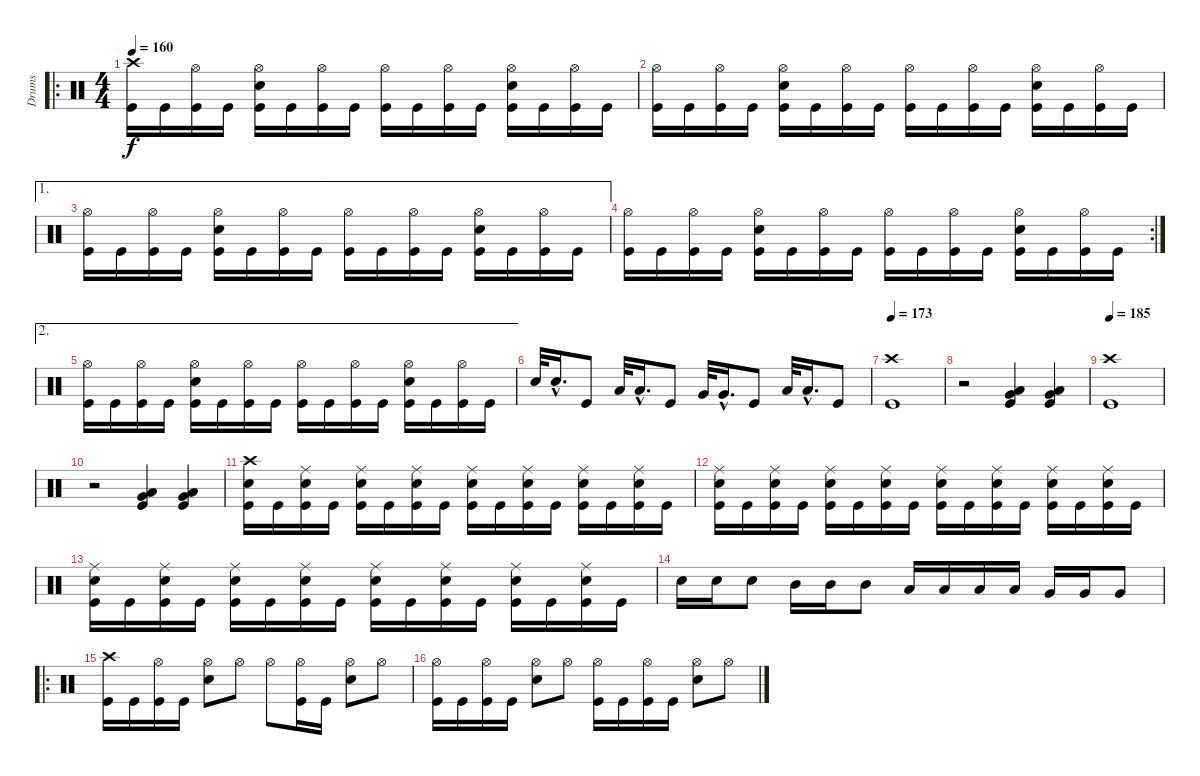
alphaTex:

\track ("Drums" "Drums") {instrument percussion}
\staff {score}
\articulation defaults
\ro
\ts (4 4)
\tempo 160
\clef neutral
\ks c
("Crash high (hit)" "Kick (hit)").16{dy f} "Kick (hit)".16 ("Hi-Hat (open)" "Kick (hit)").16 "Kick (hit)".16 ("Hi-Hat (open)" "Electric Snare (hit)" "Kick (hit)").16 "Kick (hit)".16 ("Hi-Hat (open)" "Kick (hit)").16 "Kick (hit)".16 ("Hi-Hat (open)" "Kick (hit)").16 "Kick (hit)".16 ("Hi-Hat (open)" "Kick (hit)").16 "Kick (hit)".16 ("Hi-Hat (open)" "Electric Snare (hit)" "Kick (hit)").16 "Kick (hit)".16 ("Hi-Hat (open)" "Kick (hit)").16 "Kick (hit)".16 |
("Hi-Hat (open)" "Kick (hit)").16 "Kick (hit)".16 ("Hi-Hat (open)" "Kick (hit)").16 "Kick (hit)".16 ("Hi-Hat (open)" "Electric Snare (hit)" "Kick (hit)").16 "Kick (hit)".16 ("Hi-Hat (open)" "Kick (hit)").16 "Kick (hit)".16 ("Hi-Hat (open)" "Kick (hit)").16 "Kick (hit)".16 ("Hi-Hat (open)" "Kick (hit)").16 "Kick (hit)".16 ("Hi-Hat (open)" "Electric Snare (hit)" "Kick (hit)").16 "Kick (hit)".16 ("Hi-Hat (open)" "Kick (hit)").16 "Kick (hit)".16 |
\ae 1
("Hi-Hat (open)" "Kick (hit)").16 "Kick (hit)".16 ("Hi-Hat (open)" "Kick (hit)").16 "Kick (hit)".16 ("Hi-Hat (open)" "Electric Snare (hit)" "Kick (hit)").16 "Kick (hit)".16 ("Hi-Hat (open)" "Kick (hit)").16 "Kick (hit)".16 ("Hi-Hat (open)" "Kick (hit)").16 "Kick (hit)".16 ("Hi-Hat (open)" "Kick (hit)").16 "Kick (hit)".16 ("Hi-Hat (open)" "Electric Snare (hit)" "Kick (hit)").16 "Kick (hit)".16 ("Hi-Hat (open)" "Kick (hit)").16 "Kick (hit)".16 |
\rc 2
("Hi-Hat (open)" "Kick (hit)").16 "Kick (hit)".16 ("Hi-Hat (open)" "Kick (hit)").16 "Kick (hit)".16 ("Hi-Hat (open)" "Electric Snare (hit)" "Kick (hit)").16 "Kick (hit)".16 ("Hi-Hat (open)" "Kick (hit)").16 "Kick (hit)".16 ("Hi-Hat (open)" "Kick (hit)").16 "Kick (hit)".16 ("Hi-Hat (open)" "Kick (hit)").16 "Kick (hit)".16 ("Hi-Hat (open)" "Electric Snare (hit)" "Kick (hit)").16 "Kick (hit)".16 ("Hi-Hat (open)" "Kick (hit)").16 "Kick (hit)".16 |
\ae 2
("Hi-Hat (open)" "Kick (hit)").16 "Kick (hit)".16 ("Hi-Hat (open)" "Kick (hit)").16 "Kick (hit)".16 ("Hi-Hat (open)" "Electric Snare (hit)" "Kick (hit)").16 "Kick (hit)".16 ("Hi-Hat (open)" "Kick (hit)").16 "Kick (hit)".16 ("Hi-Hat (open)" "Kick (hit)").16 "Kick (hit)".16 ("Hi-Hat (open)" "Kick (hit)").16 "Kick (hit)".16 ("Hi-Hat (open)" "Electric Snare (hit)" "Kick (hit)").16 "Kick (hit)".16 ("Hi-Hat (open)" "Kick (hit)").16 "Kick (hit)".16 |
"Electric Snare (hit)".32 "Electric Snare (hit)"{hac}.16{d} "Kick (hit)".8 "Low Tom (hit)".32 "Low Tom (hit)"{hac}.16{d} "Kick (hit)".8 "Very Low Tom (hit)".32 "Very Low Tom (hit)"{hac}.16{d} "Kick (hit)".8 "Low Floor Tom (hit)".32 "Low Floor Tom (hit)"{hac}.16{d} "Kick (hit)".8 |
\tempo 173
("Crash high (hit)" "Kick (hit)").1 |
r.2 ("Low Tom (hit)" "Very Low Tom (hit)" "Kick (hit)").4 ("Low Tom (hit)" "Very Low Tom (hit)" "Kick (hit)").4 |
\tempo 185
("Crash high (hit)" "Kick (hit)").1 |
r.2 ("Low Tom (hit)" "Very Low Tom (hit)" "Kick (hit)").4 ("Low Tom (hit)" "Very Low Tom (hit)" "Kick (hit)").4 |
("Crash high (hit)" "Electric Snare (hit)" "Kick (hit)").16 "Kick (hit)".16 ("Ride (middle)" "Electric Snare (hit)" "Kick (hit)").16 "Kick (hit)".16 ("Ride (middle)" "Electric Snare (hit)" "Kick (hit)").16 "Kick (hit)".16 ("Ride (middle)" "Electric Snare (hit)" "Kick (hit)").16 "Kick (hit)".16 ("Ride (middle)" "Electric Snare (hit)" "Kick (hit)").16 "Kick (hit)".16 ("Ride (middle)" "Electric Snare (hit)" "Kick (hit)").16 "Kick (hit)".16 ("Ride (middle)" "Electric Snare (hit)" "Kick (hit)").16 "Kick (hit)".16 ("Ride (middle)" "Electric Snare (hit)" "Kick (hit)").16 "Kick (hit)".16 |
("Ride (middle)" "Electric Snare (hit)" "Kick (hit)").16 "Kick (hit)".16 ("Ride (middle)" "Electric Snare (hit)" "Kick (hit)").16 "Kick (hit)".16 ("Ride (middle)" "Electric Snare (hit)" "Kick (hit)").16 "Kick (hit)".16 ("Ride (middle)" "Electric Snare (hit)" "Kick (hit)").16 "Kick (hit)".16 ("Ride (middle)" "Electric Snare (hit)" "Kick (hit)").16 "Kick (hit)".16 ("Ride (middle)" "Electric Snare (hit)" "Kick (hit)").16 "Kick (hit)".16 ("Ride (middle)" "Electric Snare (hit)" "Kick (hit)").16 "Kick (hit)".16 ("Ride (middle)" "Electric Snare (hit)" "Kick (hit)").16 "Kick (hit)".16 |
("Ride (middle)" "Electric Snare (hit)" "Kick (hit)").16 "Kick (hit)".16 ("Ride (middle)" "Electric Snare (hit)" "Kick (hit)").16 "Kick (hit)".16 ("Ride (middle)" "Electric Snare (hit)" "Kick (hit)").16 "Kick (hit)".16 ("Ride (middle)" "Electric Snare (hit)" "Kick (hit)").16 "Kick (hit)".16 ("Ride (middle)" "Electric Snare (hit)" "Kick (hit)").16 "Kick (hit)".16 ("Ride (middle)" "Electric Snare (hit)" "Kick (hit)").16 "Kick (hit)".16 ("Ride (middle)" "Electric Snare (hit)" "Kick (hit)").16 "Kick (hit)".16 ("Ride (middle)" "Electric Snare (hit)" "Kick (hit)").16 "Kick (hit)".16 |
"Electric Snare (hit)".16 "Electric Snare (hit)".16 "Electric Snare (hit)".8 "Mid Tom (hit)".16 "Mid Tom (hit)".16 "Mid Tom (hit)".8 "Low Tom (hit)".16 "Low Tom (hit)".16 "Low Tom (hit)".16 "Low Tom (hit)".16 "Very Low Tom (hit)".16 "Very Low Tom (hit)".16 "Very Low Tom (hit)".8 |
\ro
("Crash high (hit)" "Kick (hit)").16 "Kick (hit)".16 ("Hi-Hat (open)" "Kick (hit)").16 "Kick (hit)".16 ("Hi-Hat (open)" "Electric Snare (hit)").8 "Hi-Hat (open)".8 "Hi-Hat (open)".8 ("Hi-Hat (open)" "Kick (hit)").16 "Kick (hit)".16 ("Hi-Hat (open)" "Electric Snare (hit)").8 "Hi-Hat (open)".8 |
("Hi-Hat (open)" "Kick (hit)").16 "Kick (hit)".16 ("Hi-Hat (open)" "Kick (hit)").16 "Kick (hit)".16 ("Hi-Hat (open)" "Electric Snare (hit)").8 "Hi-Hat (open)".8 ("Hi-Hat (open)" "Kick (hit)").16 "Kick (hit)".16 ("Hi-Hat (open)" "Kick (hit)").16 "Kick (hit)".16 ("Hi-Hat (open)" "Electric Snare (hit)").8 "Hi-Hat (open)".8
